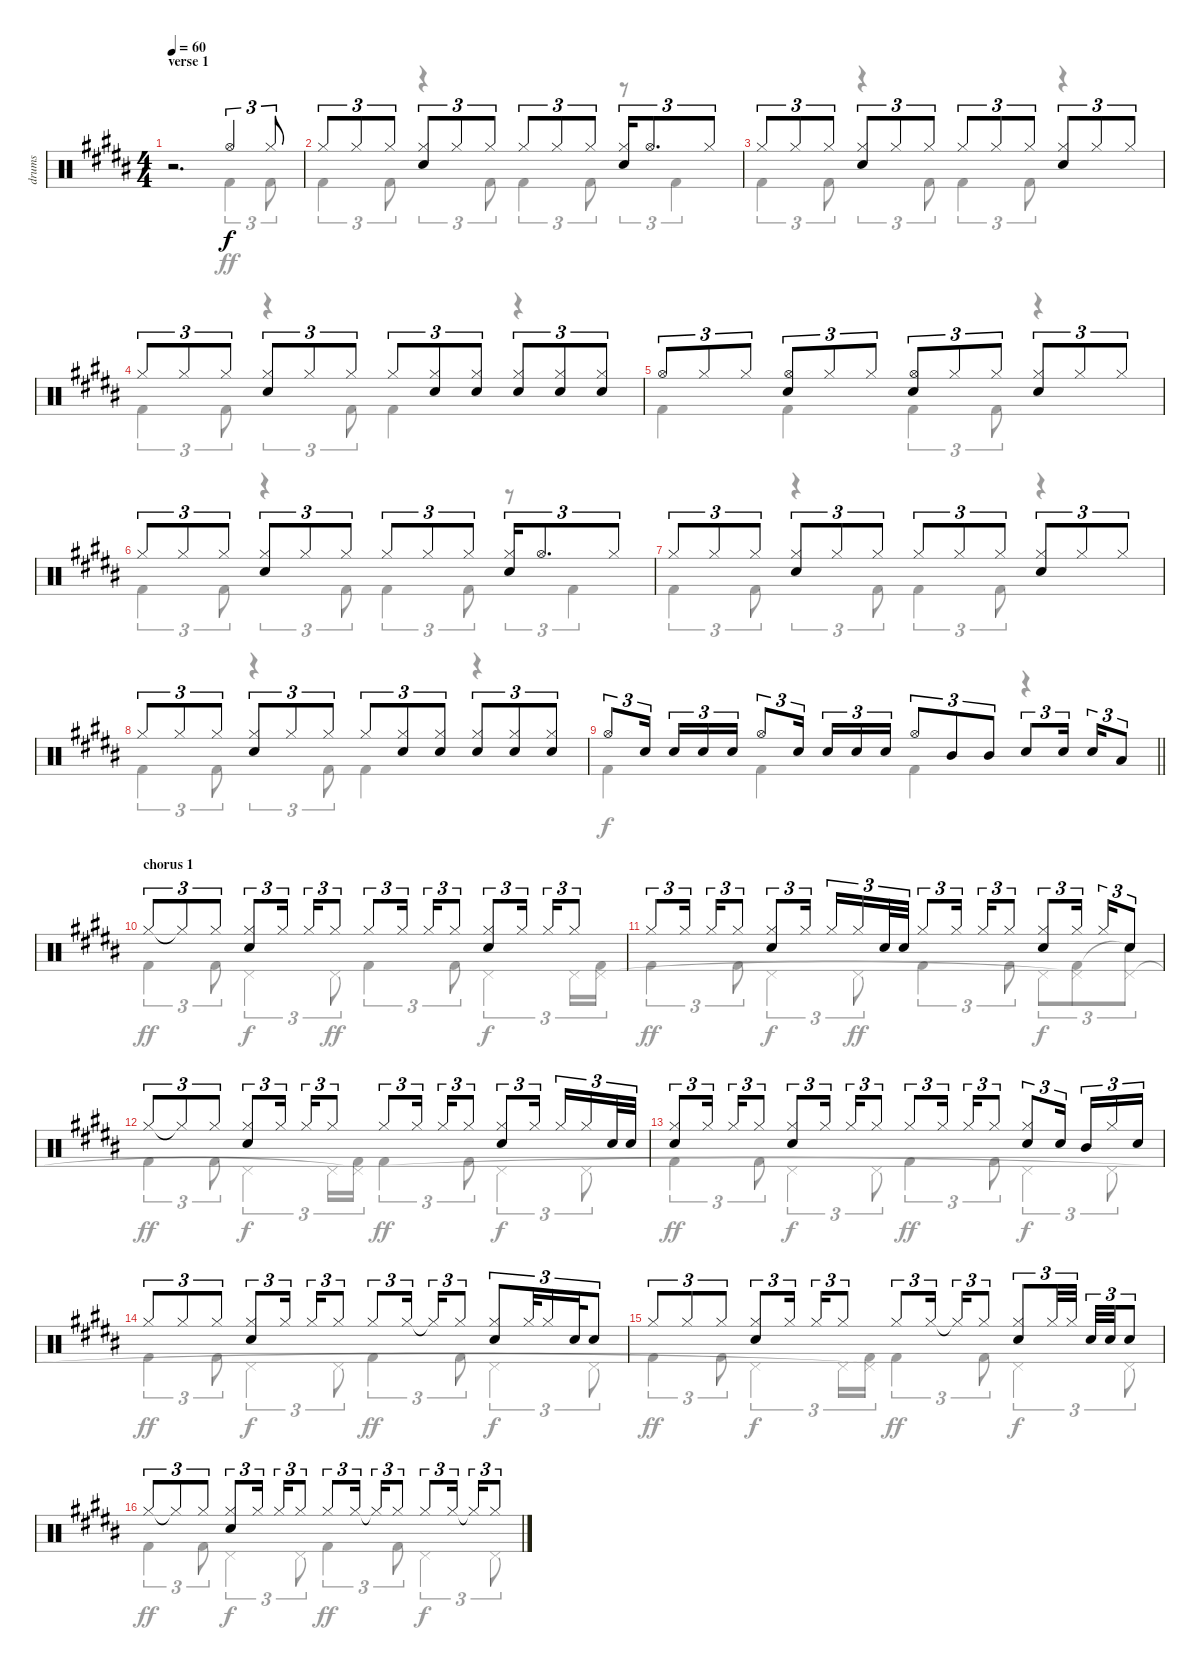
\track ("drums" "drums") {instrument percussion}
\staff {score}
\articulation defaults
\voice
\ts (4 4)
\section ("" "verse 1")
\tempo 60
\clef neutral
\ks b
r.2{d dy f} "Hi-Hat (open)".4{tu (3 2)} "Hi-Hat (closed)".8{tu (3 2)} |
"Hi-Hat (closed)".8{tu (3 2)} "Hi-Hat (closed)".8{tu (3 2)} "Hi-Hat (closed)".8{tu (3 2)} ("Hi-Hat (closed)" "Electric Snare (hit)").8{tu (3 2)} "Hi-Hat (closed)".8{tu (3 2)} "Hi-Hat (closed)".8{tu (3 2)} "Hi-Hat (closed)".8{tu (3 2)} "Hi-Hat (closed)".8{tu (3 2)} "Hi-Hat (closed)".8{tu (3 2)} ("Hi-Hat (closed)" "Electric Snare (hit)").16{tu (3 2)} "Hi-Hat (open)".8{d tu (3 2)} "Hi-Hat (closed)".8{tu (3 2)} |
"Hi-Hat (closed)".8{tu (3 2)} "Hi-Hat (closed)".8{tu (3 2)} "Hi-Hat (closed)".8{tu (3 2)} ("Hi-Hat (closed)" "Electric Snare (hit)").8{tu (3 2)} "Hi-Hat (closed)".8{tu (3 2)} "Hi-Hat (closed)".8{tu (3 2)} "Hi-Hat (closed)".8{tu (3 2)} "Hi-Hat (closed)".8{tu (3 2)} "Hi-Hat (closed)".8{tu (3 2)} ("Hi-Hat (closed)" "Electric Snare (hit)").8{tu (3 2)} "Hi-Hat (closed)".8{tu (3 2)} "Hi-Hat (closed)".8{tu (3 2)} |
"Hi-Hat (closed)".8{tu (3 2)} "Hi-Hat (closed)".8{tu (3 2)} "Hi-Hat (closed)".8{tu (3 2)} ("Hi-Hat (closed)" "Electric Snare (hit)").8{tu (3 2)} "Hi-Hat (closed)".8{tu (3 2)} "Hi-Hat (closed)".8{tu (3 2)} "Hi-Hat (closed)".8{tu (3 2)} ("Hi-Hat (closed)" "Electric Snare (hit)").8{tu (3 2)} ("Hi-Hat (closed)" "Electric Snare (hit)").8{tu (3 2)} ("Hi-Hat (closed)" "Electric Snare (hit)").8{tu (3 2)} ("Hi-Hat (closed)" "Electric Snare (hit)").8{tu (3 2)} ("Hi-Hat (closed)" "Electric Snare (hit)").8{tu (3 2)} |
"Hi-Hat (open)".8{tu (3 2)} "Hi-Hat (closed)".8{tu (3 2)} "Hi-Hat (closed)".8{tu (3 2)} ("Hi-Hat (open)" "Electric Snare (hit)").8{tu (3 2)} "Hi-Hat (closed)".8{tu (3 2)} "Hi-Hat (closed)".8{tu (3 2)} ("Hi-Hat (open)" "Electric Snare (hit)").8{tu (3 2)} "Hi-Hat (closed)".8{tu (3 2)} "Hi-Hat (closed)".8{tu (3 2)} ("Hi-Hat (closed)" "Electric Snare (hit)").8{tu (3 2)} "Hi-Hat (closed)".8{tu (3 2)} "Hi-Hat (closed)".8{tu (3 2)} |
"Hi-Hat (closed)".8{tu (3 2)} "Hi-Hat (closed)".8{tu (3 2)} "Hi-Hat (closed)".8{tu (3 2)} ("Hi-Hat (closed)" "Electric Snare (hit)").8{tu (3 2)} "Hi-Hat (closed)".8{tu (3 2)} "Hi-Hat (closed)".8{tu (3 2)} "Hi-Hat (closed)".8{tu (3 2)} "Hi-Hat (closed)".8{tu (3 2)} "Hi-Hat (closed)".8{tu (3 2)} ("Hi-Hat (closed)" "Electric Snare (hit)").16{tu (3 2)} "Hi-Hat (open)".8{d tu (3 2)} "Hi-Hat (closed)".8{tu (3 2)} |
"Hi-Hat (closed)".8{tu (3 2)} "Hi-Hat (closed)".8{tu (3 2)} "Hi-Hat (closed)".8{tu (3 2)} ("Hi-Hat (closed)" "Electric Snare (hit)").8{tu (3 2)} "Hi-Hat (closed)".8{tu (3 2)} "Hi-Hat (closed)".8{tu (3 2)} "Hi-Hat (closed)".8{tu (3 2)} "Hi-Hat (closed)".8{tu (3 2)} "Hi-Hat (closed)".8{tu (3 2)} ("Hi-Hat (closed)" "Electric Snare (hit)").8{tu (3 2)} "Hi-Hat (closed)".8{tu (3 2)} "Hi-Hat (closed)".8{tu (3 2)} |
"Hi-Hat (closed)".8{tu (3 2)} "Hi-Hat (closed)".8{tu (3 2)} "Hi-Hat (closed)".8{tu (3 2)} ("Hi-Hat (closed)" "Electric Snare (hit)").8{tu (3 2)} "Hi-Hat (closed)".8{tu (3 2)} "Hi-Hat (closed)".8{tu (3 2)} "Hi-Hat (closed)".8{tu (3 2)} ("Hi-Hat (closed)" "Electric Snare (hit)").8{tu (3 2)} ("Hi-Hat (closed)" "Electric Snare (hit)").8{tu (3 2)} ("Hi-Hat (closed)" "Electric Snare (hit)").8{tu (3 2)} ("Hi-Hat (closed)" "Electric Snare (hit)").8{tu (3 2)} ("Hi-Hat (closed)" "Electric Snare (hit)").8{tu (3 2)} |
\barLineRight lightlight "Hi-Hat (open)".8{tu (3 2)} "Electric Snare (hit)".16{tu (3 2) beam splitsecondary} "Electric Snare (hit)".16{tu (3 2)} "Electric Snare (hit)".16{tu (3 2)} "Electric Snare (hit)".16{tu (3 2)} "Hi-Hat (open)".8{tu (3 2)} "Electric Snare (hit)".16{tu (3 2) beam splitsecondary} "Electric Snare (hit)".16{tu (3 2)} "Electric Snare (hit)".16{tu (3 2)} "Electric Snare (hit)".16{tu (3 2)} "Hi-Hat (open)".8{tu (3 2)} "Mid Tom (hit)".8{tu (3 2)} "Mid Tom (hit)".8{tu (3 2)} "Electric Snare (hit)".8{tu (3 2)} "Electric Snare (hit)".16{tu (3 2) beam splitsecondary} "Electric Snare (hit)".16{tu (3 2)} "Low Tom (hit)".8{tu (3 2)}
|
\section ("" "chorus 1")
"Hi-Hat (closed)".8{tu (3 2)} "Hi-Hat (closed)"{t}.8{tu (3 2)} "Hi-Hat (closed)".8{tu (3 2)} ("Hi-Hat (closed)" "Electric Snare (hit)").8{tu (3 2)} "Hi-Hat (closed)".16{tu (3 2) beam splitsecondary} "Hi-Hat (closed)".16{tu (3 2)} "Hi-Hat (closed)".8{tu (3 2)} "Hi-Hat (closed)".8{tu (3 2)} "Hi-Hat (closed)".16{tu (3 2) beam splitsecondary} "Hi-Hat (closed)".16{tu (3 2)} "Hi-Hat (closed)".8{tu (3 2)} ("Hi-Hat (closed)" "Electric Snare (hit)").8{tu (3 2)} "Hi-Hat (closed)".16{tu (3 2) beam splitsecondary} "Hi-Hat (closed)".16{tu (3 2)} "Hi-Hat (closed)".8{tu (3 2)} |
"Hi-Hat (closed)".8{tu (3 2)} "Hi-Hat (closed)".16{tu (3 2) beam splitsecondary} "Hi-Hat (closed)".16{tu (3 2)} "Hi-Hat (closed)".8{tu (3 2)} ("Hi-Hat (closed)" "Electric Snare (hit)").8{tu (3 2)} "Hi-Hat (closed)".16{tu (3 2) beam splitsecondary} "Hi-Hat (closed)".16{tu (3 2)} "Hi-Hat (closed)".16{tu (3 2)} "Electric Snare (hit)".32{tu (3 2)} "Electric Snare (hit)".32{tu (3 2)} "Hi-Hat (closed)".8{tu (3 2)} "Hi-Hat (closed)".16{tu (3 2) beam splitsecondary} "Hi-Hat (closed)".16{tu (3 2)} "Hi-Hat (closed)".8{tu (3 2)} ("Hi-Hat (closed)" "Electric Snare (hit)").8{tu (3 2)} "Hi-Hat (closed)".16{tu (3 2) beam splitsecondary} "Hi-Hat (closed)".16{tu (3 2)} "Electric Snare (hit)".8{tu (3 2)} |
"Hi-Hat (closed)".8{tu (3 2)} "Hi-Hat (closed)"{t}.8{tu (3 2)} "Hi-Hat (closed)".8{tu (3 2)} ("Hi-Hat (closed)" "Electric Snare (hit)").8{tu (3 2)} "Hi-Hat (closed)".16{tu (3 2) beam splitsecondary} "Hi-Hat (closed)".16{tu (3 2)} "Hi-Hat (closed)".8{tu (3 2)} "Hi-Hat (closed)".8{tu (3 2)} "Hi-Hat (closed)".16{tu (3 2) beam splitsecondary} "Hi-Hat (closed)".16{tu (3 2)} "Hi-Hat (closed)".8{tu (3 2)} ("Hi-Hat (closed)" "Electric Snare (hit)").8{tu (3 2)} "Hi-Hat (closed)".16{tu (3 2) beam splitsecondary} "Hi-Hat (closed)".16{tu (3 2)} "Hi-Hat (closed)".16{tu (3 2)} "Electric Snare (hit)".32{tu (3 2)} "Electric Snare (hit)".32{tu (3 2)} |
("Hi-Hat (closed)" "Electric Snare (hit)").8{tu (3 2)} "Hi-Hat (closed)".16{tu (3 2) beam splitsecondary} "Hi-Hat (closed)".16{tu (3 2)} "Hi-Hat (closed)".8{tu (3 2)} ("Hi-Hat (closed)" "Electric Snare (hit)").8{tu (3 2)} "Hi-Hat (closed)".16{tu (3 2) beam splitsecondary} "Hi-Hat (closed)".16{tu (3 2)} "Hi-Hat (closed)".8{tu (3 2)} "Hi-Hat (closed)".8{tu (3 2)} "Hi-Hat (closed)".16{tu (3 2) beam splitsecondary} "Hi-Hat (closed)".16{tu (3 2)} "Hi-Hat (closed)".8{tu (3 2)} ("Hi-Hat (closed)" "Electric Snare (hit)").8{tu (3 2)} "Electric Snare (hit)".16{tu (3 2) beam splitsecondary} "Mid Tom (hit)".16{tu (3 2)} "Hi-Hat (closed)".16{tu (3 2)} "Electric Snare (hit)".16{tu (3 2)} |
"Hi-Hat (closed)".8{tu (3 2)} "Hi-Hat (closed)".8{tu (3 2)} "Hi-Hat (closed)".8{tu (3 2)} ("Hi-Hat (closed)" "Electric Snare (hit)").8{tu (3 2)} "Hi-Hat (closed)".16{tu (3 2) beam splitsecondary} "Hi-Hat (closed)".16{tu (3 2)} "Hi-Hat (closed)".8{tu (3 2)} "Hi-Hat (closed)".8{tu (3 2)} "Hi-Hat (closed)".16{tu (3 2) beam splitsecondary} "Hi-Hat (closed)"{t}.16{tu (3 2)} "Hi-Hat (closed)".8{tu (3 2)} ("Hi-Hat (closed)" "Electric Snare (hit)").8{tu (3 2)} "Hi-Hat (closed)".32{tu (3 2)} "Hi-Hat (closed)".16{tu (3 2)} "Electric Snare (hit)".32{tu (3 2)} "Electric Snare (hit)".8{tu (3 2)} |
"Hi-Hat (closed)".8{tu (3 2)} "Hi-Hat (closed)".8{tu (3 2)} "Hi-Hat (closed)".8{tu (3 2)} ("Hi-Hat (closed)" "Electric Snare (hit)").8{tu (3 2)} "Hi-Hat (closed)".16{tu (3 2) beam splitsecondary} "Hi-Hat (closed)".16{tu (3 2)} "Hi-Hat (closed)".8{tu (3 2)} "Hi-Hat (closed)".8{tu (3 2)} "Hi-Hat (closed)".16{tu (3 2) beam splitsecondary} "Hi-Hat (closed)"{t}.16{tu (3 2)} "Hi-Hat (closed)".8{tu (3 2)} ("Hi-Hat (closed)" "Electric Snare (hit)").8{tu (3 2)} "Hi-Hat (closed)".32{tu (3 2)} "Hi-Hat (closed)".32{tu (3 2) beam splitsecondary} "Electric Snare (hit)".32{tu (3 2)} "Electric Snare (hit)".32{tu (3 2)} "Electric Snare (hit)".8{tu (3 2)} |
"Hi-Hat (closed)".8{tu (3 2)} "Hi-Hat (closed)"{t}.8{tu (3 2)} "Hi-Hat (closed)".8{tu (3 2)} ("Hi-Hat (closed)" "Electric Snare (hit)").8{tu (3 2)} "Hi-Hat (closed)".16{tu (3 2) beam splitsecondary} "Hi-Hat (closed)".16{tu (3 2)} "Hi-Hat (closed)".8{tu (3 2)} "Hi-Hat (closed)".8{tu (3 2)} "Hi-Hat (closed)".16{tu (3 2) beam splitsecondary} "Hi-Hat (closed)"{t}.16{tu (3 2)} "Hi-Hat (closed)".8{tu (3 2)} "Hi-Hat (closed)".8{tu (3 2)} "Hi-Hat (closed)".16{tu (3 2) beam splitsecondary} "Hi-Hat (closed)"{t}.16{tu (3 2)} "Hi-Hat (closed)".8{tu (3 2)}
\voice
\clef neutral
\ottava regular
\simile none
\ks b
r.2{d dy ff} "Kick (hit) 2".4{tu (3 2)} "Kick (hit) 2".8{tu (3 2)} |
"Kick (hit) 2".4{tu (3 2)} "Kick (hit) 2".8{tu (3 2)} r.4{tu (3 2)} "Kick (hit) 2".8{tu (3 2)} "Kick (hit) 2".4{tu (3 2)} "Kick (hit) 2".8{tu (3 2)} r.8{tu (3 2)} "Kick (hit) 2".4{tu (3 2)} |
"Kick (hit) 2".4{tu (3 2)} "Kick (hit) 2".8{tu (3 2)} r.4{tu (3 2)} "Kick (hit) 2".8{tu (3 2)} "Kick (hit) 2".4{tu (3 2)} "Kick (hit) 2".8{tu (3 2)} r.4 |
"Kick (hit) 2".4{tu (3 2)} "Kick (hit) 2".8{tu (3 2)} r.4{tu (3 2)} "Kick (hit) 2".8{tu (3 2)} "Kick (hit) 2".4 r.4 |
"Kick (hit) 2".4 "Kick (hit) 2".4 "Kick (hit) 2".4{tu (3 2)} "Kick (hit) 2".8{tu (3 2)} r.4 |
"Kick (hit) 2".4{tu (3 2)} "Kick (hit) 2".8{tu (3 2)} r.4{tu (3 2)} "Kick (hit) 2".8{tu (3 2)} "Kick (hit) 2".4{tu (3 2)} "Kick (hit) 2".8{tu (3 2)} r.8{tu (3 2)} "Kick (hit) 2".4{tu (3 2)} |
"Kick (hit) 2".4{tu (3 2)} "Kick (hit) 2".8{tu (3 2)} r.4{tu (3 2)} "Kick (hit) 2".8{tu (3 2)} "Kick (hit) 2".4{tu (3 2)} "Kick (hit) 2".8{tu (3 2)} r.4 |
"Kick (hit) 2".4{tu (3 2)} "Kick (hit) 2".8{tu (3 2)} r.4{tu (3 2)} "Kick (hit) 2".8{tu (3 2)} "Kick (hit) 2".4 r.4 |
\barLineRight lightlight "Kick (hit) 2".4{dy f} "Kick (hit) 2".4 "Kick (hit) 2".4
r.4 |
"Kick (hit) 2".4{tu (3 2) dy ff} "Kick (hit) 2".8{tu (3 2)} "Pedal Hi-Hat (hit)".4{tu (3 2) dy f} "Pedal Hi-Hat (hit)".8{tu (3 2) dy ff} "Kick (hit) 2".4{tu (3 2)} "Kick (hit) 2".8{tu (3 2)} "Pedal Hi-Hat (hit)".4{tu (3 2) dy f} "Pedal Hi-Hat (hit)".16{tu (3 2)} ("Kick (hit) 2" "Pedal Hi-Hat (hit)").16{tu (3 2)} |
"Kick (hit) 2".4{tu (3 2) dy ff} "Kick (hit) 2".8{tu (3 2)} "Pedal Hi-Hat (hit)".4{tu (3 2) dy f} "Pedal Hi-Hat (hit)".8{tu (3 2) dy ff} "Kick (hit) 2".4{tu (3 2)} "Kick (hit) 2".8{tu (3 2)} "Pedal Hi-Hat (hit)".8{tu (3 2) dy f} ("Kick (hit) 2" "Pedal Hi-Hat (hit)"{t}).8{tu (3 2)} ("Snare (hit)"{t} "Pedal Hi-Hat (hit)").8{tu (3 2)} |
"Kick (hit) 2".4{tu (3 2) dy ff} "Kick (hit) 2".8{tu (3 2)} "Pedal Hi-Hat (hit)".4{tu (3 2) dy f} "Pedal Hi-Hat (hit)".16{tu (3 2)} ("Kick (hit) 2" "Pedal Hi-Hat (hit)"{t}).16{tu (3 2)} "Kick (hit) 2".4{tu (3 2) dy ff} "Kick (hit) 2".8{tu (3 2)} "Pedal Hi-Hat (hit)".4{tu (3 2) dy f} "Pedal Hi-Hat (hit)".8{tu (3 2)} |
"Kick (hit) 2".4{tu (3 2) dy ff} "Kick (hit) 2".8{tu (3 2)} "Pedal Hi-Hat (hit)".4{tu (3 2) dy f} "Pedal Hi-Hat (hit)".8{tu (3 2)} "Kick (hit) 2".4{tu (3 2) dy ff} "Kick (hit) 2".8{tu (3 2)} "Pedal Hi-Hat (hit)".4{tu (3 2) dy f} "Pedal Hi-Hat (hit)".8{tu (3 2)} |
"Kick (hit) 2".4{tu (3 2) dy ff} "Kick (hit) 2".8{tu (3 2)} "Pedal Hi-Hat (hit)".4{tu (3 2) dy f} "Pedal Hi-Hat (hit)".8{tu (3 2)} "Kick (hit) 2".4{tu (3 2) dy ff} "Kick (hit) 2".8{tu (3 2)} "Pedal Hi-Hat (hit)".4{tu (3 2) dy f} "Pedal Hi-Hat (hit)".8{tu (3 2)} |
"Kick (hit) 2".4{tu (3 2) dy ff} "Kick (hit) 2".8{tu (3 2)} "Pedal Hi-Hat (hit)".4{tu (3 2) dy f} "Pedal Hi-Hat (hit)".16{tu (3 2)} ("Kick (hit) 2" "Pedal Hi-Hat (hit)"{t}).16{tu (3 2)} "Kick (hit) 2".4{tu (3 2) dy ff} "Kick (hit) 2".8{tu (3 2)} "Pedal Hi-Hat (hit)".4{tu (3 2) dy f} "Pedal Hi-Hat (hit)".8{tu (3 2)} |
"Kick (hit) 2".4{tu (3 2) dy ff} "Kick (hit) 2".8{tu (3 2)} "Pedal Hi-Hat (hit)".4{tu (3 2) dy f} "Pedal Hi-Hat (hit)".8{tu (3 2)} "Kick (hit) 2".4{tu (3 2) dy ff} "Kick (hit) 2".8{tu (3 2)} "Pedal Hi-Hat (hit)".4{tu (3 2) dy f} "Pedal Hi-Hat (hit)".8{tu (3 2)}
